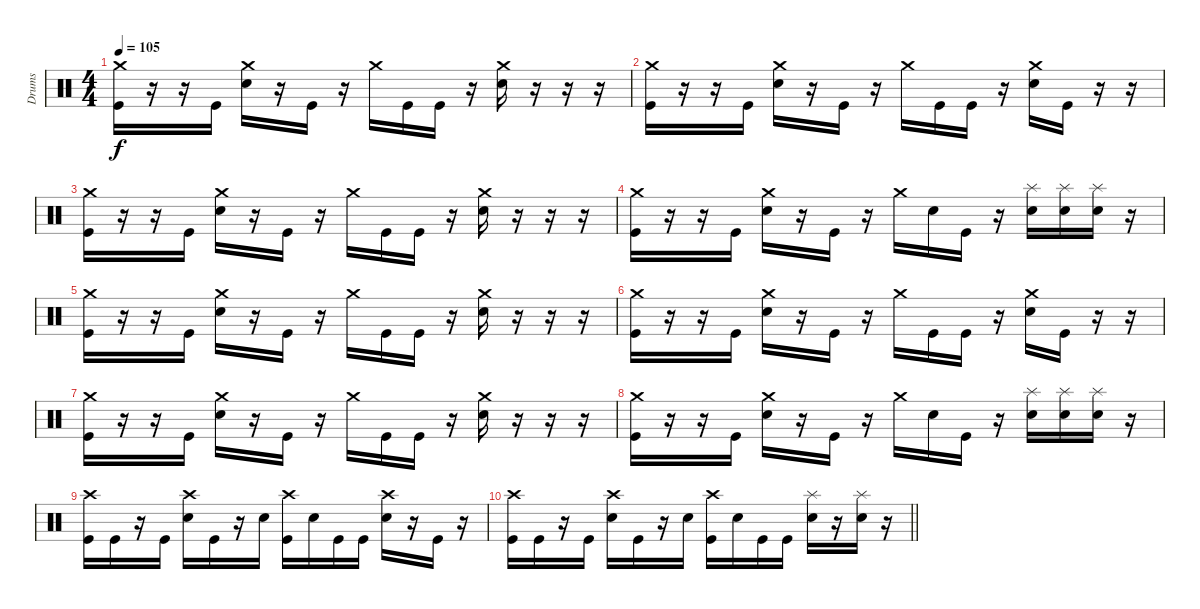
\track ("Drums" "Drums") {instrument percussion}
\staff {score}
\articulation defaults
\ts (4 4)
\tempo 105
\clef neutral
\ks c
("Crash medium (hit)" "Kick (hit)").16{dy f} r.16 r.16 "Kick (hit)".16 ("Crash medium (hit)" "Electric Snare (hit)").16 r.16 "Kick (hit)".16 r.16 "Crash medium (hit)".16 "Kick (hit)".16 "Kick (hit)".16 r.16 ("Crash medium (hit)" "Electric Snare (hit)").16 r.16 r.16 r.16 |
("Crash medium (hit)" "Kick (hit)").16 r.16 r.16 "Kick (hit)".16 ("Crash medium (hit)" "Electric Snare (hit)").16 r.16 "Kick (hit)".16 r.16 "Crash medium (hit)".16 "Kick (hit)".16 "Kick (hit)".16 r.16 ("Crash medium (hit)" "Electric Snare (hit)").16 "Kick (hit)".16 r.16 r.16 |
("Crash medium (hit)" "Kick (hit)").16 r.16 r.16 "Kick (hit)".16 ("Crash medium (hit)" "Electric Snare (hit)").16 r.16 "Kick (hit)".16 r.16 "Crash medium (hit)".16 "Kick (hit)".16 "Kick (hit)".16 r.16 ("Crash medium (hit)" "Electric Snare (hit)").16 r.16 r.16 r.16 |
("Crash medium (hit)" "Kick (hit)").16 r.16 r.16 "Kick (hit)".16 ("Crash medium (hit)" "Electric Snare (hit)").16 r.16 "Kick (hit)".16 r.16 "Crash medium (hit)".16 "Electric Snare (hit)".16 "Kick (hit)".16 r.16 ("Splash (hit)" "Electric Snare (hit)").16 ("Splash (hit)" "Electric Snare (hit)").16 ("Splash (hit)" "Electric Snare (hit)").16 r.16 |
("Crash medium (hit)" "Kick (hit)").16 r.16 r.16 "Kick (hit)".16 ("Crash medium (hit)" "Electric Snare (hit)").16 r.16 "Kick (hit)".16 r.16 "Crash medium (hit)".16 "Kick (hit)".16 "Kick (hit)".16 r.16 ("Crash medium (hit)" "Electric Snare (hit)").16 r.16 r.16 r.16 |
("Crash medium (hit)" "Kick (hit)").16 r.16 r.16 "Kick (hit)".16 ("Crash medium (hit)" "Electric Snare (hit)").16 r.16 "Kick (hit)".16 r.16 "Crash medium (hit)".16 "Kick (hit)".16 "Kick (hit)".16 r.16 ("Crash medium (hit)" "Electric Snare (hit)").16 "Kick (hit)".16 r.16 r.16 |
("Crash medium (hit)" "Kick (hit)").16 r.16 r.16 "Kick (hit)".16 ("Crash medium (hit)" "Electric Snare (hit)").16 r.16 "Kick (hit)".16 r.16 "Crash medium (hit)".16 "Kick (hit)".16 "Kick (hit)".16 r.16 ("Crash medium (hit)" "Electric Snare (hit)").16 r.16 r.16 r.16 |
("Crash medium (hit)" "Kick (hit)").16 r.16 r.16 "Kick (hit)".16 ("Crash medium (hit)" "Electric Snare (hit)").16 r.16 "Kick (hit)".16 r.16 "Crash medium (hit)".16 "Electric Snare (hit)".16 "Kick (hit)".16 r.16 ("Splash (hit)" "Electric Snare (hit)").16 ("Splash (hit)" "Electric Snare (hit)").16 ("Splash (hit)" "Electric Snare (hit)").16 r.16 |
("Crash high (hit)" "Kick (hit)").16 "Kick (hit)".16 r.16 "Kick (hit)".16 ("Crash high (hit)" "Electric Snare (hit)").16 "Kick (hit)".16 r.16 "Electric Snare (hit)".16 ("Crash high (hit)" "Kick (hit)").16 "Electric Snare (hit)".16 "Kick (hit)".16 "Kick (hit)".16 ("Crash high (hit)" "Electric Snare (hit)").16 r.16 "Kick (hit)".16 r.16 |
\barLineRight lightlight
("Crash high (hit)" "Kick (hit)").16 "Kick (hit)".16 r.16 "Kick (hit)".16 ("Crash high (hit)" "Electric Snare (hit)").16 "Kick (hit)".16 r.16 "Electric Snare (hit)".16 ("Crash high (hit)" "Kick (hit)").16 "Electric Snare (hit)".16 "Kick (hit)".16 "Kick (hit)".16 ("Splash (hit)" "Electric Snare (hit)").16 r.16 ("Splash (hit)" "Electric Snare (hit)").16 r.16
